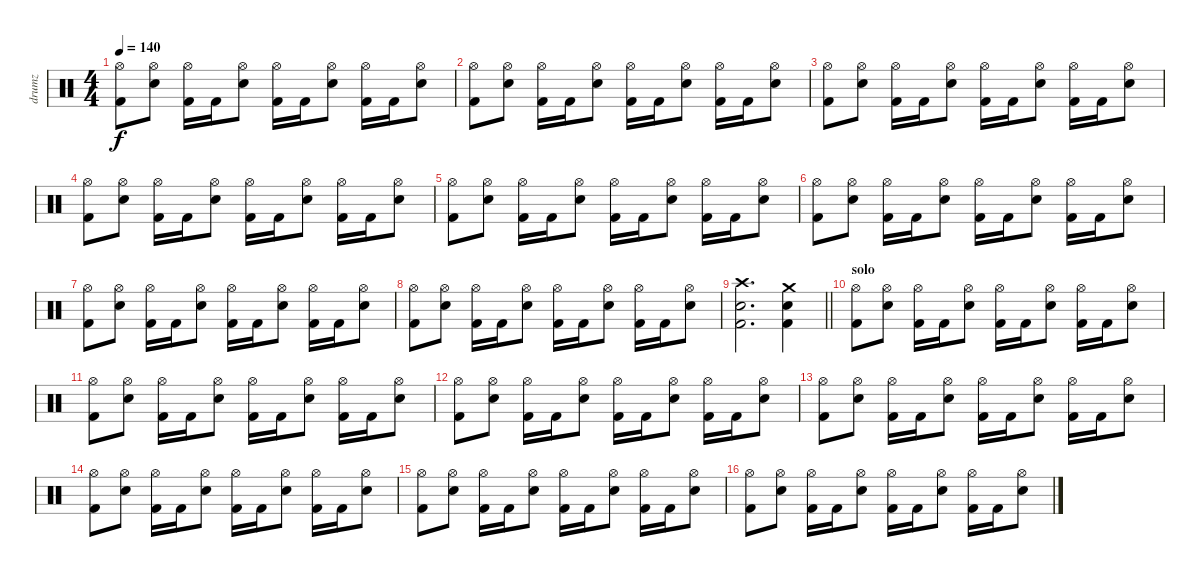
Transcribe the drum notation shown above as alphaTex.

\track ("drumz" "drumz") {instrument percussion}
\staff {score}
\articulation defaults
\ts (4 4)
\tempo 140
\clef neutral
\ks c
("Hi-Hat (open)" "Kick (hit) 2").8{dy f} ("Hi-Hat (open)" "Electric Snare (hit)").8 ("Hi-Hat (open)" "Kick (hit) 2").16 "Kick (hit) 2".16 ("Hi-Hat (open)" "Electric Snare (hit)").8 ("Hi-Hat (open)" "Kick (hit) 2").16 "Kick (hit) 2".16 ("Hi-Hat (open)" "Electric Snare (hit)").8 ("Hi-Hat (open)" "Kick (hit) 2").16 "Kick (hit) 2".16 ("Hi-Hat (open)" "Electric Snare (hit)").8 |
("Hi-Hat (open)" "Kick (hit) 2").8 ("Hi-Hat (open)" "Electric Snare (hit)").8 ("Hi-Hat (open)" "Kick (hit) 2").16 "Kick (hit) 2".16 ("Hi-Hat (open)" "Electric Snare (hit)").8 ("Hi-Hat (open)" "Kick (hit) 2").16 "Kick (hit) 2".16 ("Hi-Hat (open)" "Electric Snare (hit)").8 ("Hi-Hat (open)" "Kick (hit) 2").16 "Kick (hit) 2".16 ("Hi-Hat (open)" "Electric Snare (hit)").8 |
("Hi-Hat (open)" "Kick (hit) 2").8 ("Hi-Hat (open)" "Electric Snare (hit)").8 ("Hi-Hat (open)" "Kick (hit) 2").16 "Kick (hit) 2".16 ("Hi-Hat (open)" "Electric Snare (hit)").8 ("Hi-Hat (open)" "Kick (hit) 2").16 "Kick (hit) 2".16 ("Hi-Hat (open)" "Electric Snare (hit)").8 ("Hi-Hat (open)" "Kick (hit) 2").16 "Kick (hit) 2".16 ("Hi-Hat (open)" "Electric Snare (hit)").8 |
("Hi-Hat (open)" "Kick (hit) 2").8 ("Hi-Hat (open)" "Electric Snare (hit)").8 ("Hi-Hat (open)" "Kick (hit) 2").16 "Kick (hit) 2".16 ("Hi-Hat (open)" "Electric Snare (hit)").8 ("Hi-Hat (open)" "Kick (hit) 2").16 "Kick (hit) 2".16 ("Hi-Hat (open)" "Electric Snare (hit)").8 ("Hi-Hat (open)" "Kick (hit) 2").16 "Kick (hit) 2".16 ("Hi-Hat (open)" "Electric Snare (hit)").8 |
("Hi-Hat (open)" "Kick (hit) 2").8 ("Hi-Hat (open)" "Electric Snare (hit)").8 ("Hi-Hat (open)" "Kick (hit) 2").16 "Kick (hit) 2".16 ("Hi-Hat (open)" "Electric Snare (hit)").8 ("Hi-Hat (open)" "Kick (hit) 2").16 "Kick (hit) 2".16 ("Hi-Hat (open)" "Electric Snare (hit)").8 ("Hi-Hat (open)" "Kick (hit) 2").16 "Kick (hit) 2".16 ("Hi-Hat (open)" "Electric Snare (hit)").8 |
("Hi-Hat (open)" "Kick (hit) 2").8 ("Hi-Hat (open)" "Electric Snare (hit)").8 ("Hi-Hat (open)" "Kick (hit) 2").16 "Kick (hit) 2".16 ("Hi-Hat (open)" "Electric Snare (hit)").8 ("Hi-Hat (open)" "Kick (hit) 2").16 "Kick (hit) 2".16 ("Hi-Hat (open)" "Electric Snare (hit)").8 ("Hi-Hat (open)" "Kick (hit) 2").16 "Kick (hit) 2".16 ("Hi-Hat (open)" "Electric Snare (hit)").8 |
("Hi-Hat (open)" "Kick (hit) 2").8 ("Hi-Hat (open)" "Electric Snare (hit)").8 ("Hi-Hat (open)" "Kick (hit) 2").16 "Kick (hit) 2".16 ("Hi-Hat (open)" "Electric Snare (hit)").8 ("Hi-Hat (open)" "Kick (hit) 2").16 "Kick (hit) 2".16 ("Hi-Hat (open)" "Electric Snare (hit)").8 ("Hi-Hat (open)" "Kick (hit) 2").16 "Kick (hit) 2".16 ("Hi-Hat (open)" "Electric Snare (hit)").8 |
("Hi-Hat (open)" "Kick (hit) 2").8 ("Hi-Hat (open)" "Electric Snare (hit)").8 ("Hi-Hat (open)" "Kick (hit) 2").16 "Kick (hit) 2".16 ("Hi-Hat (open)" "Electric Snare (hit)").8 ("Hi-Hat (open)" "Kick (hit) 2").16 "Kick (hit) 2".16 ("Hi-Hat (open)" "Electric Snare (hit)").8 ("Hi-Hat (open)" "Kick (hit) 2").16 "Kick (hit) 2".16 ("Hi-Hat (open)" "Electric Snare (hit)").8 |
\barLineRight lightlight
("Crash high (hit)" "Electric Snare (hit)" "Kick (hit) 2").2{d} ("Crash medium (hit)" "Electric Snare (hit)" "Kick (hit) 2").4 |
\section ("" "solo")
("Hi-Hat (open)" "Kick (hit) 2").8 ("Hi-Hat (open)" "Electric Snare (hit)").8 ("Hi-Hat (open)" "Kick (hit) 2").16 "Kick (hit) 2".16 ("Hi-Hat (open)" "Electric Snare (hit)").8 ("Hi-Hat (open)" "Kick (hit) 2").16 "Kick (hit) 2".16 ("Hi-Hat (open)" "Electric Snare (hit)").8 ("Hi-Hat (open)" "Kick (hit) 2").16 "Kick (hit) 2".16 ("Hi-Hat (open)" "Electric Snare (hit)").8 |
("Hi-Hat (open)" "Kick (hit) 2").8 ("Hi-Hat (open)" "Electric Snare (hit)").8 ("Hi-Hat (open)" "Kick (hit) 2").16 "Kick (hit) 2".16 ("Hi-Hat (open)" "Electric Snare (hit)").8 ("Hi-Hat (open)" "Kick (hit) 2").16 "Kick (hit) 2".16 ("Hi-Hat (open)" "Electric Snare (hit)").8 ("Hi-Hat (open)" "Kick (hit) 2").16 "Kick (hit) 2".16 ("Hi-Hat (open)" "Electric Snare (hit)").8 |
("Hi-Hat (open)" "Kick (hit) 2").8 ("Hi-Hat (open)" "Electric Snare (hit)").8 ("Hi-Hat (open)" "Kick (hit) 2").16 "Kick (hit) 2".16 ("Hi-Hat (open)" "Electric Snare (hit)").8 ("Hi-Hat (open)" "Kick (hit) 2").16 "Kick (hit) 2".16 ("Hi-Hat (open)" "Electric Snare (hit)").8 ("Hi-Hat (open)" "Kick (hit) 2").16 "Kick (hit) 2".16 ("Hi-Hat (open)" "Electric Snare (hit)").8 |
("Hi-Hat (open)" "Kick (hit) 2").8 ("Hi-Hat (open)" "Electric Snare (hit)").8 ("Hi-Hat (open)" "Kick (hit) 2").16 "Kick (hit) 2".16 ("Hi-Hat (open)" "Electric Snare (hit)").8 ("Hi-Hat (open)" "Kick (hit) 2").16 "Kick (hit) 2".16 ("Hi-Hat (open)" "Electric Snare (hit)").8 ("Hi-Hat (open)" "Kick (hit) 2").16 "Kick (hit) 2".16 ("Hi-Hat (open)" "Electric Snare (hit)").8 |
("Hi-Hat (open)" "Kick (hit) 2").8 ("Hi-Hat (open)" "Electric Snare (hit)").8 ("Hi-Hat (open)" "Kick (hit) 2").16 "Kick (hit) 2".16 ("Hi-Hat (open)" "Electric Snare (hit)").8 ("Hi-Hat (open)" "Kick (hit) 2").16 "Kick (hit) 2".16 ("Hi-Hat (open)" "Electric Snare (hit)").8 ("Hi-Hat (open)" "Kick (hit) 2").16 "Kick (hit) 2".16 ("Hi-Hat (open)" "Electric Snare (hit)").8 |
("Hi-Hat (open)" "Kick (hit) 2").8 ("Hi-Hat (open)" "Electric Snare (hit)").8 ("Hi-Hat (open)" "Kick (hit) 2").16 "Kick (hit) 2".16 ("Hi-Hat (open)" "Electric Snare (hit)").8 ("Hi-Hat (open)" "Kick (hit) 2").16 "Kick (hit) 2".16 ("Hi-Hat (open)" "Electric Snare (hit)").8 ("Hi-Hat (open)" "Kick (hit) 2").16 "Kick (hit) 2".16 ("Hi-Hat (open)" "Electric Snare (hit)").8 |
("Hi-Hat (open)" "Kick (hit) 2").8 ("Hi-Hat (open)" "Electric Snare (hit)").8 ("Hi-Hat (open)" "Kick (hit) 2").16 "Kick (hit) 2".16 ("Hi-Hat (open)" "Electric Snare (hit)").8 ("Hi-Hat (open)" "Kick (hit) 2").16 "Kick (hit) 2".16 ("Hi-Hat (open)" "Electric Snare (hit)").8 ("Hi-Hat (open)" "Kick (hit) 2").16 "Kick (hit) 2".16 ("Hi-Hat (open)" "Electric Snare (hit)").8
